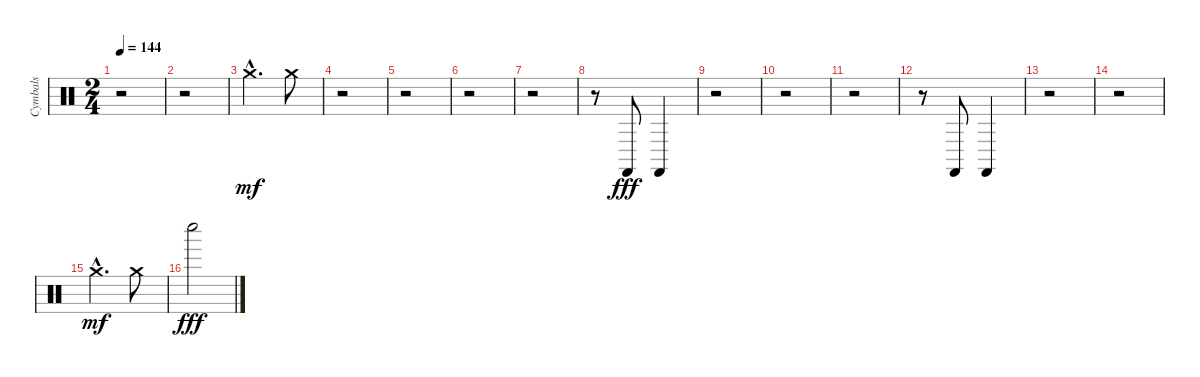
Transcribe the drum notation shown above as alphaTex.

\track ("Cymbals             " "Cymbals   ") {instrument percussion}
\staff {score}
\articulation defaults
\ts (2 4)
\tempo 144
\clef neutral
\ks c
r.2{dy mf} |
r.2 |
"Crash medium (hit)"{hac}.4{d} "Crash medium (hit)".8 |
r.2 |
r.2 |
r.2 |
r.2 |
r.8 "Castanets (hit)".8{dy fff} "Castanets (hit)".4 |
r.2 |
r.2 |
r.2 |
r.8 "Castanets (hit)".8 "Castanets (hit)".4 |
r.2 |
r.2 |
"Crash medium (hit)"{hac}.4{d dy mf} "Crash medium (hit)".8 |
"Whistle low (hit)".2{dy fff}
